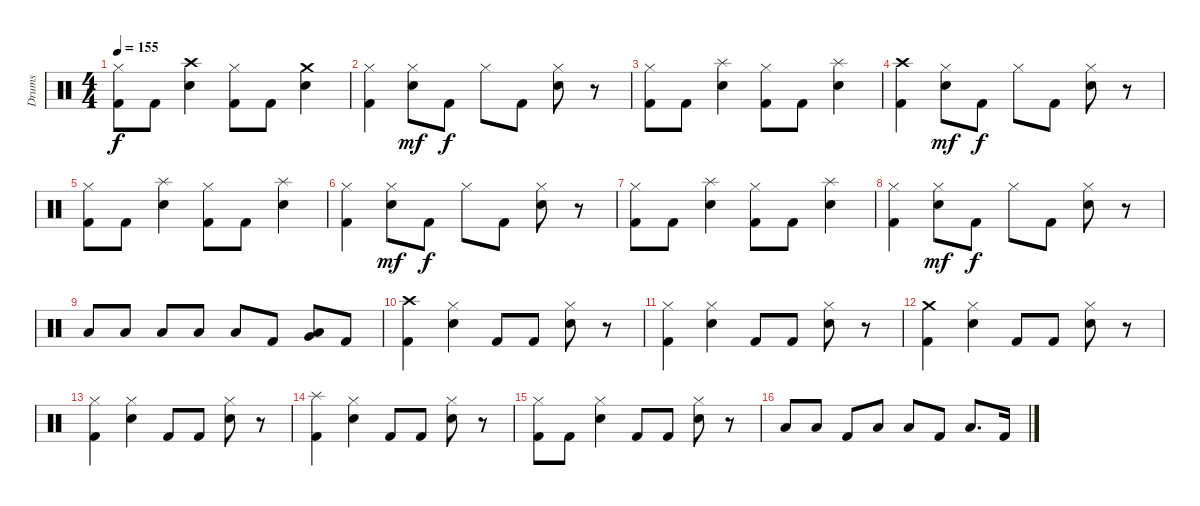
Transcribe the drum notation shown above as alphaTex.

\track ("Drums" "Drums") {instrument percussion}
\staff {score}
\articulation defaults
\ts (4 4)
\tempo 155
\clef neutral
\ks c
("Hi-Hat (closed)" "Kick (hit) 2").8{dy f} "Kick (hit) 2".8 ("Crash high (hit)" "Snare (hit) 2").4 ("Hi-Hat (closed)" "Kick (hit) 2").8 "Kick (hit) 2".8 ("Crash medium (hit)" "Snare (hit) 2").4 |
("Hi-Hat (closed)" "Kick (hit) 2").4 ("Hi-Hat (closed)" "Snare (hit) 2").8{dy mf} "Kick (hit) 2".8{dy f} "Hi-Hat (closed)".8 "Kick (hit) 2".8 ("Hi-Hat (closed)" "Snare (hit) 2").8 r.8 |
("Hi-Hat (closed)" "Kick (hit) 2").8 "Kick (hit) 2".8 ("Splash (hit)" "Snare (hit) 2").4 ("Hi-Hat (closed)" "Kick (hit) 2").8 "Kick (hit) 2".8 ("Splash (hit)" "Snare (hit) 2").4 |
("Crash high (hit)" "Kick (hit) 2").4 ("Hi-Hat (closed)" "Snare (hit) 2").8{dy mf} "Kick (hit) 2".8{dy f} "Hi-Hat (closed)".8 "Kick (hit) 2".8 ("Hi-Hat (closed)" "Snare (hit) 2").8 r.8 |
("Hi-Hat (closed)" "Kick (hit) 2").8 "Kick (hit) 2".8 ("Splash (hit)" "Snare (hit) 2").4 ("Hi-Hat (closed)" "Kick (hit) 2").8 "Kick (hit) 2".8 ("Splash (hit)" "Snare (hit) 2").4 |
("Hi-Hat (closed)" "Kick (hit) 2").4 ("Hi-Hat (closed)" "Snare (hit) 2").8{dy mf} "Kick (hit) 2".8{dy f} "Hi-Hat (closed)".8 "Kick (hit) 2".8 ("Hi-Hat (closed)" "Snare (hit) 2").8 r.8 |
("Hi-Hat (closed)" "Kick (hit) 2").8 "Kick (hit) 2".8 ("Splash (hit)" "Snare (hit) 2").4 ("Hi-Hat (closed)" "Kick (hit) 2").8 "Kick (hit) 2".8 ("Splash (hit)" "Snare (hit) 2").4 |
("Hi-Hat (closed)" "Kick (hit) 2").4 ("Hi-Hat (closed)" "Snare (hit) 2").8{dy mf} "Kick (hit) 2".8{dy f} "Hi-Hat (closed)".8 "Kick (hit) 2".8 ("Hi-Hat (closed)" "Snare (hit) 2").8 r.8 |
"Low Tom (hit)".8 "Low Tom (hit)".8 "Low Floor Tom (hit)".8 "Low Tom (hit)".8 "Low Tom (hit)".8 "Kick (hit) 2".8 ("Very Low Tom (hit)" "Low Tom (hit)").8 "Kick (hit) 2".8 |
("Crash high (hit)" "Kick (hit) 2").4 ("Hi-Hat (closed)" "Snare (hit) 2").4 "Kick (hit) 2".8 "Kick (hit) 2".8 ("Hi-Hat (closed)" "Snare (hit) 2").8 r.8 |
("Hi-Hat (closed)" "Kick (hit) 2").4 ("Hi-Hat (closed)" "Snare (hit) 2").4 "Kick (hit) 2".8 "Kick (hit) 2".8 ("Hi-Hat (closed)" "Snare (hit) 2").8 r.8 |
("Crash medium (hit)" "Kick (hit) 2").4 ("Hi-Hat (closed)" "Snare (hit) 2").4 "Kick (hit) 2".8 "Kick (hit) 2".8 ("Hi-Hat (closed)" "Snare (hit) 2").8 r.8 |
("Hi-Hat (closed)" "Kick (hit) 2").4 ("Hi-Hat (closed)" "Snare (hit) 2").4 "Kick (hit) 2".8 "Kick (hit) 2".8 ("Hi-Hat (closed)" "Snare (hit) 2").8 r.8 |
("Splash (hit)" "Kick (hit) 2").4 ("Hi-Hat (closed)" "Snare (hit) 2").4 "Kick (hit) 2".8 "Kick (hit) 2".8 ("Hi-Hat (closed)" "Snare (hit) 2").8 r.8 |
("Hi-Hat (closed)" "Kick (hit) 2").8 "Kick (hit) 2".8 ("Hi-Hat (closed)" "Snare (hit) 2").4 "Kick (hit) 2".8 "Kick (hit) 2".8 ("Hi-Hat (closed)" "Snare (hit) 2").8 r.8 |
"Low Tom (hit)".8 "Low Tom (hit)".8 "Kick (hit) 2".8 "Low Tom (hit)".8 "Low Tom (hit)".8 "Kick (hit) 2".8 "Low Tom (hit)".8{d} "Kick (hit) 2".16
